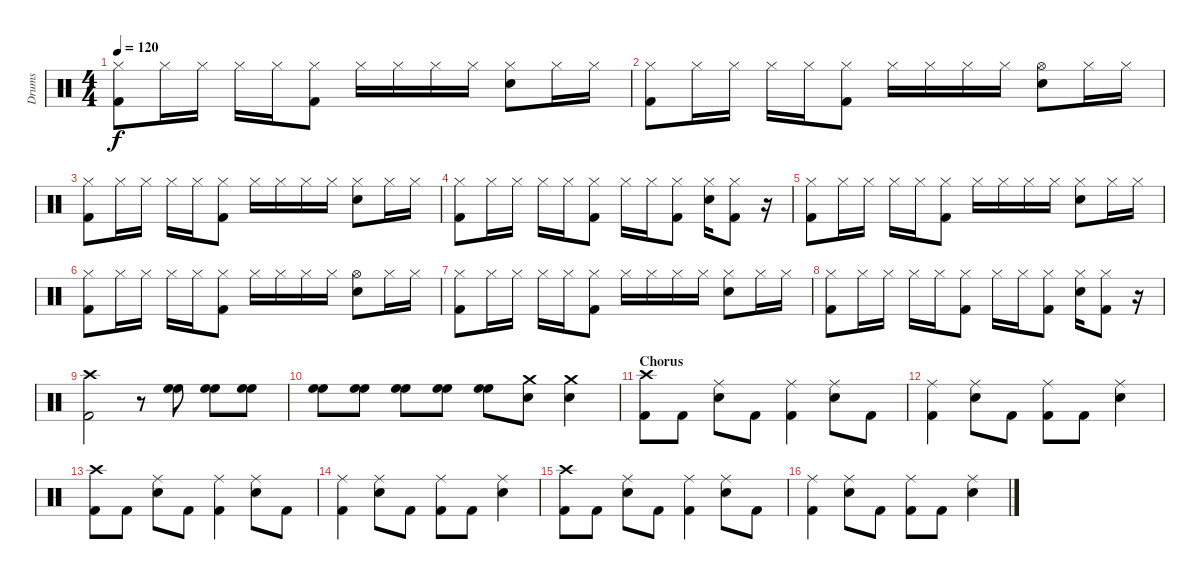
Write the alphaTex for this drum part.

\track ("Drums" "Drums") {instrument percussion}
\staff {score}
\articulation defaults
\ts (4 4)
\tempo 120
\clef neutral
\ks c
("Hi-Hat (closed)" "Kick (hit) 2").8{dy f} "Hi-Hat (closed)".16 "Hi-Hat (closed)".16 "Hi-Hat (closed)".16 "Hi-Hat (closed)".16 ("Hi-Hat (closed)" "Kick (hit) 2").8 "Hi-Hat (closed)".16 "Hi-Hat (closed)".16 "Hi-Hat (closed)".16 "Hi-Hat (closed)".16 ("Hi-Hat (closed)" "Snare (hit) 2").8 "Hi-Hat (closed)".16 "Hi-Hat (closed)".16 |
("Hi-Hat (closed)" "Kick (hit) 2").8 "Hi-Hat (closed)".16 "Hi-Hat (closed)".16 "Hi-Hat (closed)".16 "Hi-Hat (closed)".16 ("Hi-Hat (closed)" "Kick (hit) 2").8 "Hi-Hat (closed)".16 "Hi-Hat (closed)".16 "Hi-Hat (closed)".16 "Hi-Hat (closed)".16 ("Hi-Hat (open)" "Snare (hit) 2").8 "Hi-Hat (closed)".16 "Hi-Hat (closed)".16 |
("Hi-Hat (closed)" "Kick (hit) 2").8 "Hi-Hat (closed)".16 "Hi-Hat (closed)".16 "Hi-Hat (closed)".16 "Hi-Hat (closed)".16 ("Hi-Hat (closed)" "Kick (hit) 2").8 "Hi-Hat (closed)".16 "Hi-Hat (closed)".16 "Hi-Hat (closed)".16 "Hi-Hat (closed)".16 ("Hi-Hat (closed)" "Snare (hit) 2").8 "Hi-Hat (closed)".16 "Hi-Hat (closed)".16 |
("Hi-Hat (closed)" "Kick (hit) 2").8 "Hi-Hat (closed)".16 "Hi-Hat (closed)".16 "Hi-Hat (closed)".16 "Hi-Hat (closed)".16 ("Hi-Hat (closed)" "Kick (hit) 2").8 "Hi-Hat (closed)".16 "Hi-Hat (closed)".16 ("Hi-Hat (closed)" "Kick (hit) 2").8 ("Hi-Hat (closed)" "Snare (hit) 2").16 ("Hi-Hat (closed)" "Kick (hit) 2").8 r.16 |
("Hi-Hat (closed)" "Kick (hit) 2").8 "Hi-Hat (closed)".16 "Hi-Hat (closed)".16 "Hi-Hat (closed)".16 "Hi-Hat (closed)".16 ("Hi-Hat (closed)" "Kick (hit) 2").8 "Hi-Hat (closed)".16 "Hi-Hat (closed)".16 "Hi-Hat (closed)".16 "Hi-Hat (closed)".16 ("Hi-Hat (closed)" "Snare (hit) 2").8 "Hi-Hat (closed)".16 "Hi-Hat (closed)".16 |
("Hi-Hat (closed)" "Kick (hit) 2").8 "Hi-Hat (closed)".16 "Hi-Hat (closed)".16 "Hi-Hat (closed)".16 "Hi-Hat (closed)".16 ("Hi-Hat (closed)" "Kick (hit) 2").8 "Hi-Hat (closed)".16 "Hi-Hat (closed)".16 "Hi-Hat (closed)".16 "Hi-Hat (closed)".16 ("Hi-Hat (open)" "Snare (hit) 2").8 "Hi-Hat (closed)".16 "Hi-Hat (closed)".16 |
("Hi-Hat (closed)" "Kick (hit) 2").8 "Hi-Hat (closed)".16 "Hi-Hat (closed)".16 "Hi-Hat (closed)".16 "Hi-Hat (closed)".16 ("Hi-Hat (closed)" "Kick (hit) 2").8 "Hi-Hat (closed)".16 "Hi-Hat (closed)".16 "Hi-Hat (closed)".16 "Hi-Hat (closed)".16 ("Hi-Hat (closed)" "Snare (hit) 2").8 "Hi-Hat (closed)".16 "Hi-Hat (closed)".16 |
("Hi-Hat (closed)" "Kick (hit) 2").8 "Hi-Hat (closed)".16 "Hi-Hat (closed)".16 "Hi-Hat (closed)".16 "Hi-Hat (closed)".16 ("Hi-Hat (closed)" "Kick (hit) 2").8 "Hi-Hat (closed)".16 "Hi-Hat (closed)".16 ("Hi-Hat (closed)" "Kick (hit) 2").8 ("Hi-Hat (closed)" "Snare (hit) 2").16 ("Hi-Hat (closed)" "Kick (hit) 2").8 r.16 |
("Crash high (hit)" "Kick (hit) 2").2 r.8 ("High Floor Tom (hit)" "High Floor Tom (hit)").8 ("High Floor Tom (hit)" "High Floor Tom (hit)").8 ("High Floor Tom (hit)" "High Floor Tom (hit)").8 |
("High Floor Tom (hit)" "High Floor Tom (hit)").8 ("High Floor Tom (hit)" "High Floor Tom (hit)").8 ("High Floor Tom (hit)" "High Floor Tom (hit)").8 ("High Floor Tom (hit)" "High Floor Tom (hit)").8 ("High Floor Tom (hit)" "High Floor Tom (hit)").8 ("Crash medium (hit)" "Snare (hit) 2").8 ("Crash medium (hit)" "Snare (hit) 2").4 |
\section ("" "Chorus")
("Crash high (hit)" "Kick (hit) 2").8 "Kick (hit) 2".8 ("Ride (middle)" "Snare (hit) 2").8 "Kick (hit) 2".8 ("Ride (middle)" "Kick (hit) 2").4 ("Ride (middle)" "Snare (hit) 2").8 "Kick (hit) 2".8 |
("Ride (middle)" "Kick (hit) 2").4 ("Ride (middle)" "Snare (hit) 2").8 "Kick (hit) 2".8 ("Ride (middle)" "Kick (hit) 2").8 "Kick (hit) 2".8 ("Ride (middle)" "Snare (hit) 2").4 |
("Crash high (hit)" "Kick (hit) 2").8 "Kick (hit) 2".8 ("Ride (middle)" "Snare (hit) 2").8 "Kick (hit) 2".8 ("Ride (middle)" "Kick (hit) 2").4 ("Ride (middle)" "Snare (hit) 2").8 "Kick (hit) 2".8 |
("Ride (middle)" "Kick (hit) 2").4 ("Ride (middle)" "Snare (hit) 2").8 "Kick (hit) 2".8 ("Ride (middle)" "Kick (hit) 2").8 "Kick (hit) 2".8 ("Ride (middle)" "Snare (hit) 2").4 |
("Crash high (hit)" "Kick (hit) 2").8 "Kick (hit) 2".8 ("Ride (middle)" "Snare (hit) 2").8 "Kick (hit) 2".8 ("Ride (middle)" "Kick (hit) 2").4 ("Ride (middle)" "Snare (hit) 2").8 "Kick (hit) 2".8 |
("Ride (middle)" "Kick (hit) 2").4 ("Ride (middle)" "Snare (hit) 2").8 "Kick (hit) 2".8 ("Ride (middle)" "Kick (hit) 2").8 "Kick (hit) 2".8 ("Ride (middle)" "Snare (hit) 2").4
